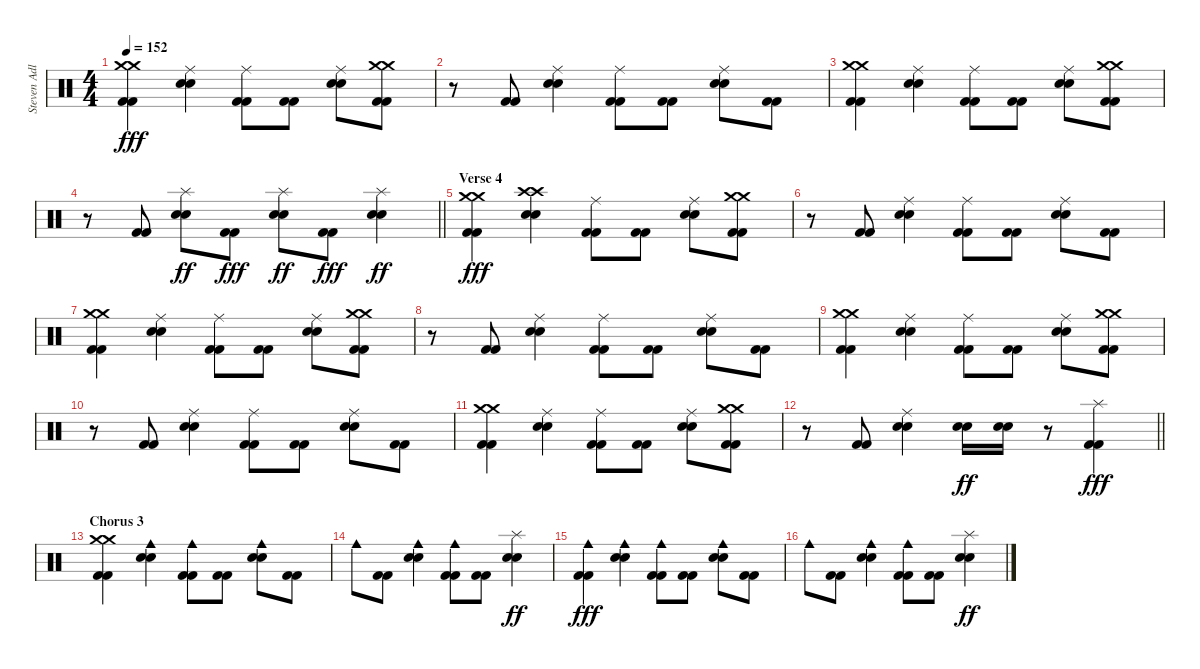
\track ("Steven Adler" "Steven Adl") {instrument percussion}
\staff {score}
\articulation defaults
\ts (4 4)
\tempo 152
\clef neutral
\ks c
("Crash medium (hit)" "Crash medium (hit)" "Kick (hit) 2" "Kick (hit) 2").4{dy fff} ("Ride (middle)" "Electric Snare (hit)" "Electric Snare (hit)").4 ("Ride (middle)" "Kick (hit) 2" "Kick (hit) 2").8 ("Kick (hit) 2" "Kick (hit) 2").8 ("Ride (middle)" "Electric Snare (hit)" "Electric Snare (hit)").8 ("Crash medium (hit)" "Crash medium (hit)" "Kick (hit) 2" "Kick (hit) 2").8 |
r.8 ("Kick (hit) 2" "Kick (hit) 2").8 ("Ride (middle)" "Electric Snare (hit)" "Electric Snare (hit)").4 ("Ride (middle)" "Kick (hit) 2" "Kick (hit) 2").8 ("Kick (hit) 2" "Kick (hit) 2").8 ("Ride (middle)" "Electric Snare (hit)" "Electric Snare (hit)").8 ("Kick (hit) 2" "Kick (hit) 2").8 |
("Crash medium (hit)" "Crash medium (hit)" "Kick (hit) 2" "Kick (hit) 2").4 ("Ride (middle)" "Electric Snare (hit)" "Electric Snare (hit)").4 ("Ride (middle)" "Kick (hit) 2" "Kick (hit) 2").8 ("Kick (hit) 2" "Kick (hit) 2").8 ("Ride (middle)" "Electric Snare (hit)" "Electric Snare (hit)").8 ("Crash medium (hit)" "Crash medium (hit)" "Kick (hit) 2" "Kick (hit) 2").8 |
\barLineRight lightlight
r.8 ("Kick (hit) 2" "Kick (hit) 2").8 ("Splash (hit)" "Electric Snare (hit)" "Electric Snare (hit)").8{dy ff} ("Kick (hit) 2" "Kick (hit) 2").8{dy fff} ("Splash (hit)" "Electric Snare (hit)" "Electric Snare (hit)").8{dy ff} ("Kick (hit) 2" "Kick (hit) 2").8{dy fff} ("Splash (hit)" "Electric Snare (hit)" "Electric Snare (hit)").4{dy ff} |
\section ("" "Verse 4")
("Crash medium (hit)" "Crash medium (hit)" "Kick (hit) 2" "Kick (hit) 2").4{dy fff} ("Crash high (hit)" "Crash high (hit)" "Electric Snare (hit)" "Electric Snare (hit)").4 ("Ride (middle)" "Kick (hit) 2" "Kick (hit) 2").8 ("Kick (hit) 2" "Kick (hit) 2").8 ("Ride (middle)" "Electric Snare (hit)" "Electric Snare (hit)").8 ("Crash medium (hit)" "Crash medium (hit)" "Kick (hit) 2" "Kick (hit) 2").8 |
r.8 ("Kick (hit) 2" "Kick (hit) 2").8 ("Ride (middle)" "Electric Snare (hit)" "Electric Snare (hit)").4 ("Ride (middle)" "Kick (hit) 2" "Kick (hit) 2").8 ("Kick (hit) 2" "Kick (hit) 2").8 ("Ride (middle)" "Electric Snare (hit)" "Electric Snare (hit)").8 ("Kick (hit) 2" "Kick (hit) 2").8 |
("Crash medium (hit)" "Crash medium (hit)" "Kick (hit) 2" "Kick (hit) 2").4 ("Ride (middle)" "Electric Snare (hit)" "Electric Snare (hit)").4 ("Ride (middle)" "Kick (hit) 2" "Kick (hit) 2").8 ("Kick (hit) 2" "Kick (hit) 2").8 ("Ride (middle)" "Electric Snare (hit)" "Electric Snare (hit)").8 ("Crash medium (hit)" "Crash medium (hit)" "Kick (hit) 2" "Kick (hit) 2").8 |
r.8 ("Kick (hit) 2" "Kick (hit) 2").8 ("Ride (middle)" "Electric Snare (hit)" "Electric Snare (hit)").4 ("Ride (middle)" "Kick (hit) 2" "Kick (hit) 2").8 ("Kick (hit) 2" "Kick (hit) 2").8 ("Ride (middle)" "Electric Snare (hit)" "Electric Snare (hit)").8 ("Kick (hit) 2" "Kick (hit) 2").8 |
("Crash medium (hit)" "Crash medium (hit)" "Kick (hit) 2" "Kick (hit) 2").4 ("Ride (middle)" "Electric Snare (hit)" "Electric Snare (hit)").4 ("Ride (middle)" "Kick (hit) 2" "Kick (hit) 2").8 ("Kick (hit) 2" "Kick (hit) 2").8 ("Ride (middle)" "Electric Snare (hit)" "Electric Snare (hit)").8 ("Crash medium (hit)" "Crash medium (hit)" "Kick (hit) 2" "Kick (hit) 2").8 |
r.8 ("Kick (hit) 2" "Kick (hit) 2").8 ("Ride (middle)" "Electric Snare (hit)" "Electric Snare (hit)").4 ("Ride (middle)" "Kick (hit) 2" "Kick (hit) 2").8 ("Kick (hit) 2" "Kick (hit) 2").8 ("Ride (middle)" "Electric Snare (hit)" "Electric Snare (hit)").8 ("Kick (hit) 2" "Kick (hit) 2").8 |
("Crash medium (hit)" "Crash medium (hit)" "Kick (hit) 2" "Kick (hit) 2").4 ("Ride (middle)" "Electric Snare (hit)" "Electric Snare (hit)").4 ("Ride (middle)" "Kick (hit) 2" "Kick (hit) 2").8 ("Kick (hit) 2" "Kick (hit) 2").8 ("Ride (middle)" "Electric Snare (hit)" "Electric Snare (hit)").8 ("Crash medium (hit)" "Crash medium (hit)" "Kick (hit) 2" "Kick (hit) 2").8 |
\barLineRight lightlight
r.8 ("Kick (hit) 2" "Kick (hit) 2").8 ("Ride (middle)" "Electric Snare (hit)" "Electric Snare (hit)").4 ("Electric Snare (hit)" "Electric Snare (hit)").16{dy ff} ("Electric Snare (hit)" "Electric Snare (hit)").16 r.8 ("Splash (hit)" "Kick (hit) 2" "Kick (hit) 2").4{dy fff} |
\section ("" "Chorus 3")
("Crash medium (hit)" "Crash medium (hit)" "Kick (hit) 2" "Kick (hit) 2").4 ("Cowbell medium (hit)" "Electric Snare (hit)" "Electric Snare (hit)").4 ("Cowbell medium (hit)" "Kick (hit) 2" "Kick (hit) 2").8 ("Kick (hit) 2" "Kick (hit) 2").8 ("Cowbell medium (hit)" "Electric Snare (hit)" "Electric Snare (hit)").8 ("Kick (hit) 2" "Kick (hit) 2").8 |
"Cowbell medium (hit)".8 ("Kick (hit) 2" "Kick (hit) 2").8 ("Cowbell medium (hit)" "Electric Snare (hit)" "Electric Snare (hit)").4 ("Cowbell medium (hit)" "Kick (hit) 2" "Kick (hit) 2").8 ("Kick (hit) 2" "Kick (hit) 2").8 ("Splash (hit)" "Electric Snare (hit)" "Electric Snare (hit)").4{dy ff} |
("Cowbell medium (hit)" "Kick (hit) 2" "Kick (hit) 2").4{dy fff} ("Cowbell medium (hit)" "Electric Snare (hit)" "Electric Snare (hit)").4 ("Cowbell medium (hit)" "Kick (hit) 2" "Kick (hit) 2").8 ("Kick (hit) 2" "Kick (hit) 2").8 ("Cowbell medium (hit)" "Electric Snare (hit)" "Electric Snare (hit)").8 ("Kick (hit) 2" "Kick (hit) 2").8 |
"Cowbell medium (hit)".8 ("Kick (hit) 2" "Kick (hit) 2").8 ("Cowbell medium (hit)" "Electric Snare (hit)" "Electric Snare (hit)").4 ("Cowbell medium (hit)" "Kick (hit) 2" "Kick (hit) 2").8 ("Kick (hit) 2" "Kick (hit) 2").8 ("Splash (hit)" "Electric Snare (hit)" "Electric Snare (hit)").4{dy ff}
